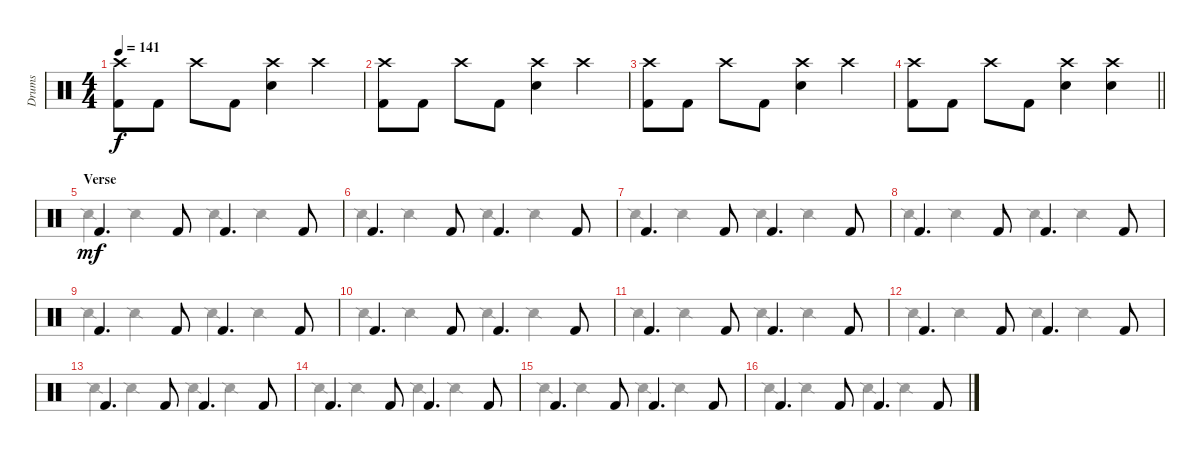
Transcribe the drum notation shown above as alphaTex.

\track ("Drums" "Drums") {instrument percussion}
\staff {score}
\articulation defaults
\voice
\ts (4 4)
\tempo 141
\clef neutral
\ks c
("Kick (hit) 2" "Crash high (hit)").8{dy f} "Kick (hit) 2".8 "Crash high (hit)".8 "Kick (hit) 2".8 ("Electric Snare (hit)" "Crash high (hit)").4 "Crash high (hit)".4 |
("Kick (hit) 2" "Crash high (hit)").8 "Kick (hit) 2".8 "Crash high (hit)".8 "Kick (hit) 2".8 ("Electric Snare (hit)" "Crash high (hit)").4 "Crash high (hit)".4 |
("Kick (hit) 2" "Crash high (hit)").8 "Kick (hit) 2".8 "Crash high (hit)".8 "Kick (hit) 2".8 ("Electric Snare (hit)" "Crash high (hit)").4 "Crash high (hit)".4 |
\barLineRight lightlight
("Kick (hit) 2" "Crash high (hit)").8 "Kick (hit) 2".8 "Crash high (hit)".8 "Kick (hit) 2".8 ("Electric Snare (hit)" "Crash high (hit)").4 ("Electric Snare (hit)" "Crash high (hit)").4 |
\section ("" "Verse")
"Kick (hit) 2".4{d dy mf} "Kick (hit) 2".8 "Kick (hit) 2".4{d} "Kick (hit) 2".8 |
"Kick (hit) 2".4{d} "Kick (hit) 2".8 "Kick (hit) 2".4{d} "Kick (hit) 2".8 |
"Kick (hit) 2".4{d} "Kick (hit) 2".8 "Kick (hit) 2".4{d} "Kick (hit) 2".8 |
"Kick (hit) 2".4{d} "Kick (hit) 2".8 "Kick (hit) 2".4{d} "Kick (hit) 2".8 |
"Kick (hit) 2".4{d} "Kick (hit) 2".8 "Kick (hit) 2".4{d} "Kick (hit) 2".8 |
"Kick (hit) 2".4{d} "Kick (hit) 2".8 "Kick (hit) 2".4{d} "Kick (hit) 2".8 |
"Kick (hit) 2".4{d} "Kick (hit) 2".8 "Kick (hit) 2".4{d} "Kick (hit) 2".8 |
"Kick (hit) 2".4{d} "Kick (hit) 2".8 "Kick (hit) 2".4{d} "Kick (hit) 2".8 |
"Kick (hit) 2".4{d} "Kick (hit) 2".8 "Kick (hit) 2".4{d} "Kick (hit) 2".8 |
"Kick (hit) 2".4{d} "Kick (hit) 2".8 "Kick (hit) 2".4{d} "Kick (hit) 2".8 |
"Kick (hit) 2".4{d} "Kick (hit) 2".8 "Kick (hit) 2".4{d} "Kick (hit) 2".8 |
"Kick (hit) 2".4{d} "Kick (hit) 2".8 "Kick (hit) 2".4{d} "Kick (hit) 2".8
\voice
\clef neutral
\ottava regular
\simile none
\ks c
|
|
|
\barLineRight lightlight
|
"Snare (side stick) 2".4 "Snare (side stick) 2".4 "Snare (side stick) 2".4 "Snare (side stick) 2".4 |
"Snare (side stick) 2".4 "Snare (side stick) 2".4 "Snare (side stick) 2".4 "Snare (side stick) 2".4 |
"Snare (side stick) 2".4 "Snare (side stick) 2".4 "Snare (side stick) 2".4 "Snare (side stick) 2".4 |
"Snare (side stick) 2".4 "Snare (side stick) 2".4 "Snare (side stick) 2".4 "Snare (side stick) 2".4 |
"Snare (side stick) 2".4 "Snare (side stick) 2".4 "Snare (side stick) 2".4 "Snare (side stick) 2".4 |
"Snare (side stick) 2".4 "Snare (side stick) 2".4 "Snare (side stick) 2".4 "Snare (side stick) 2".4 |
"Snare (side stick) 2".4 "Snare (side stick) 2".4 "Snare (side stick) 2".4 "Snare (side stick) 2".4 |
"Snare (side stick) 2".4 "Snare (side stick) 2".4 "Snare (side stick) 2".4 "Snare (side stick) 2".4 |
"Snare (side stick) 2".4 "Snare (side stick) 2".4 "Snare (side stick) 2".4 "Snare (side stick) 2".4 |
"Snare (side stick) 2".4 "Snare (side stick) 2".4 "Snare (side stick) 2".4 "Snare (side stick) 2".4 |
"Snare (side stick) 2".4 "Snare (side stick) 2".4 "Snare (side stick) 2".4 "Snare (side stick) 2".4 |
"Snare (side stick) 2".4 "Snare (side stick) 2".4 "Snare (side stick) 2".4 "Snare (side stick) 2".4
